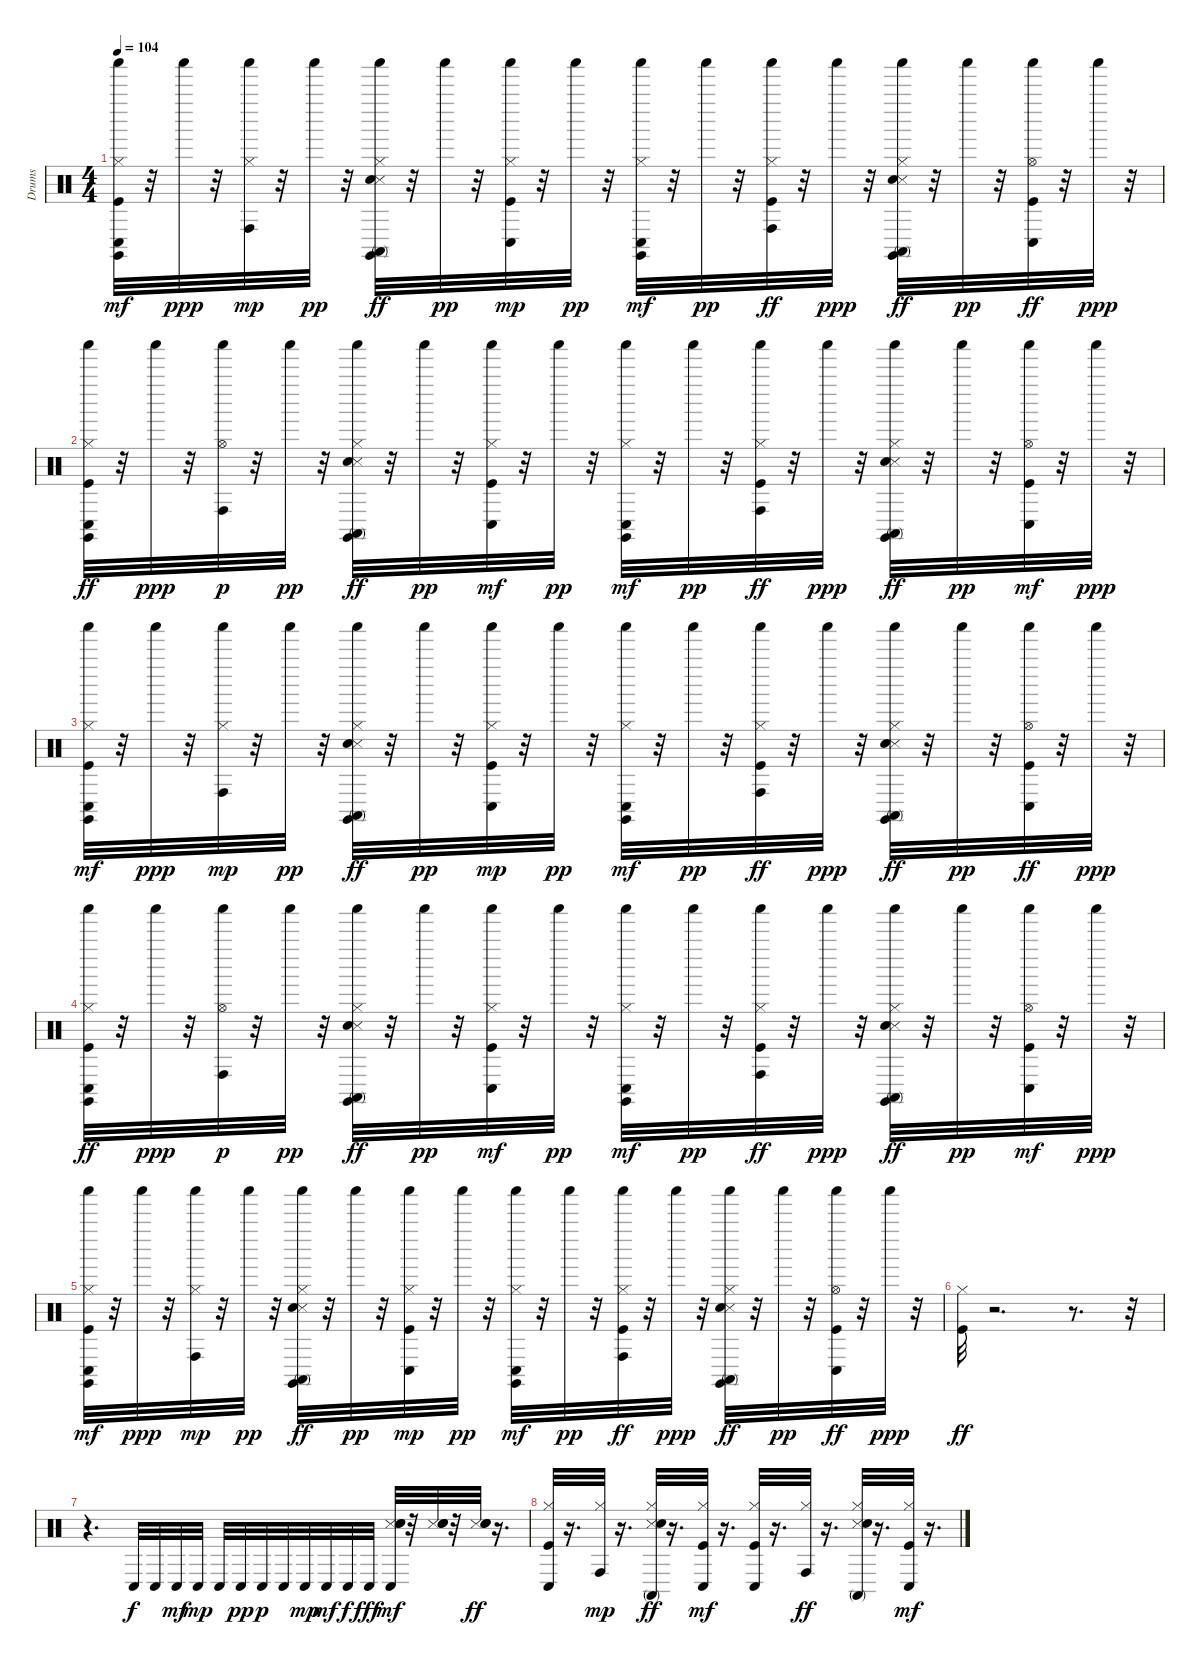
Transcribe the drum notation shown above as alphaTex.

\track ("Drums" "Drums") {instrument percussion}
\staff {score}
\articulation defaults
\ts (4 4)
\tempo 104
\clef neutral
\ks c
("Claves (hit)" "Shaker (hit)" "Kick (hit)" "Hi-Hat (closed)" "Conga low (hit)").32{dy mf} r.32 "Shaker (hit)".32{dy ppp} r.32 ("Shaker (hit)" "Hi-Hat (closed)" "Conga high (hit)").32{dy mp} r.32 "Shaker (hit)".32{dy pp} r.32 ("Claves (hit)" "Shaker (hit)" "Snare (side stick) 3" "Hi-Hat (closed)" "Conga high (mute)" "Snare (hit) 2").32{dy ff} r.32 "Shaker (hit)".32{dy pp} r.32 ("Shaker (hit)" "Kick (hit)" "Hi-Hat (closed)" "Conga low (hit)").32{dy mp} r.32 "Shaker (hit)".32{dy pp} r.32 ("Claves (hit)" "Shaker (hit)" "Hi-Hat (closed)" "Conga low (hit)").32{dy mf} r.32 "Shaker (hit)".32{dy pp} r.32 ("Shaker (hit)" "Kick (hit)" "Hi-Hat (closed)" "Conga high (hit)").32{dy ff} r.32 "Shaker (hit)".32{dy ppp} r.32 ("Claves (hit)" "Shaker (hit)" "Snare (side stick) 3" "Hi-Hat (closed)" "Conga high (mute)" "Snare (hit) 2").32{dy ff} r.32 "Shaker (hit)".32{dy pp} r.32 ("Hi-Hat (open)" "Shaker (hit)" "Kick (hit)" "Conga low (hit)").32{dy ff} r.32 "Shaker (hit)".32{dy ppp} r.32 |
("Claves (hit)" "Shaker (hit)" "Kick (hit)" "Hi-Hat (closed)" "Conga low (hit)").32{dy ff} r.32 "Shaker (hit)".32{dy ppp} r.32 ("Hi-Hat (open)" "Shaker (hit)" "Conga high (hit)").32{dy p} r.32 "Shaker (hit)".32{dy pp} r.32 ("Claves (hit)" "Shaker (hit)" "Snare (side stick) 3" "Hi-Hat (closed)" "Conga high (mute)" "Snare (hit) 2").32{dy ff} r.32 "Shaker (hit)".32{dy pp} r.32 ("Shaker (hit)" "Kick (hit)" "Hi-Hat (closed)" "Conga low (hit)").32{dy mf} r.32 "Shaker (hit)".32{dy pp} r.32 ("Claves (hit)" "Shaker (hit)" "Hi-Hat (closed)" "Conga low (hit)").32{dy mf} r.32 "Shaker (hit)".32{dy pp} r.32 ("Shaker (hit)" "Kick (hit)" "Hi-Hat (closed)" "Conga high (hit)").32{dy ff} r.32 "Shaker (hit)".32{dy ppp} r.32 ("Claves (hit)" "Shaker (hit)" "Snare (side stick) 3" "Hi-Hat (closed)" "Conga high (mute)" "Snare (hit) 2").32{dy ff} r.32 "Shaker (hit)".32{dy pp} r.32 ("Hi-Hat (open)" "Shaker (hit)" "Kick (hit)" "Conga low (hit)").32{dy mf} r.32 "Shaker (hit)".32{dy ppp} r.32 |
("Claves (hit)" "Shaker (hit)" "Kick (hit)" "Hi-Hat (closed)" "Conga low (hit)").32{dy mf} r.32 "Shaker (hit)".32{dy ppp} r.32 ("Shaker (hit)" "Hi-Hat (closed)" "Conga high (hit)").32{dy mp} r.32 "Shaker (hit)".32{dy pp} r.32 ("Claves (hit)" "Shaker (hit)" "Snare (side stick) 3" "Hi-Hat (closed)" "Conga high (mute)" "Snare (hit) 2").32{dy ff} r.32 "Shaker (hit)".32{dy pp} r.32 ("Shaker (hit)" "Kick (hit)" "Hi-Hat (closed)" "Conga low (hit)").32{dy mp} r.32 "Shaker (hit)".32{dy pp} r.32 ("Claves (hit)" "Shaker (hit)" "Hi-Hat (closed)" "Conga low (hit)").32{dy mf} r.32 "Shaker (hit)".32{dy pp} r.32 ("Shaker (hit)" "Kick (hit)" "Hi-Hat (closed)" "Conga high (hit)").32{dy ff} r.32 "Shaker (hit)".32{dy ppp} r.32 ("Claves (hit)" "Shaker (hit)" "Snare (side stick) 3" "Hi-Hat (closed)" "Conga high (mute)" "Snare (hit) 2").32{dy ff} r.32 "Shaker (hit)".32{dy pp} r.32 ("Hi-Hat (open)" "Shaker (hit)" "Kick (hit)" "Conga low (hit)").32{dy ff} r.32 "Shaker (hit)".32{dy ppp} r.32 |
("Claves (hit)" "Shaker (hit)" "Kick (hit)" "Hi-Hat (closed)" "Conga low (hit)").32{dy ff} r.32 "Shaker (hit)".32{dy ppp} r.32 ("Hi-Hat (open)" "Shaker (hit)" "Conga high (hit)").32{dy p} r.32 "Shaker (hit)".32{dy pp} r.32 ("Claves (hit)" "Shaker (hit)" "Snare (side stick) 3" "Hi-Hat (closed)" "Conga high (mute)" "Snare (hit) 2").32{dy ff} r.32 "Shaker (hit)".32{dy pp} r.32 ("Shaker (hit)" "Kick (hit)" "Hi-Hat (closed)" "Conga low (hit)").32{dy mf} r.32 "Shaker (hit)".32{dy pp} r.32 ("Claves (hit)" "Shaker (hit)" "Hi-Hat (closed)" "Conga low (hit)").32{dy mf} r.32 "Shaker (hit)".32{dy pp} r.32 ("Shaker (hit)" "Kick (hit)" "Hi-Hat (closed)" "Conga high (hit)").32{dy ff} r.32 "Shaker (hit)".32{dy ppp} r.32 ("Claves (hit)" "Shaker (hit)" "Snare (side stick) 3" "Hi-Hat (closed)" "Conga high (mute)" "Snare (hit) 2").32{dy ff} r.32 "Shaker (hit)".32{dy pp} r.32 ("Hi-Hat (open)" "Shaker (hit)" "Kick (hit)" "Conga low (hit)").32{dy mf} r.32 "Shaker (hit)".32{dy ppp} r.32 |
("Claves (hit)" "Shaker (hit)" "Kick (hit)" "Hi-Hat (closed)" "Conga low (hit)").32{dy mf} r.32 "Shaker (hit)".32{dy ppp} r.32 ("Shaker (hit)" "Hi-Hat (closed)" "Conga high (hit)").32{dy mp} r.32 "Shaker (hit)".32{dy pp} r.32 ("Claves (hit)" "Shaker (hit)" "Snare (side stick) 3" "Hi-Hat (closed)" "Conga high (mute)" "Snare (hit) 2").32{dy ff} r.32 "Shaker (hit)".32{dy pp} r.32 ("Shaker (hit)" "Kick (hit)" "Hi-Hat (closed)" "Conga low (hit)").32{dy mp} r.32 "Shaker (hit)".32{dy pp} r.32 ("Claves (hit)" "Shaker (hit)" "Hi-Hat (closed)" "Conga low (hit)").32{dy mf} r.32 "Shaker (hit)".32{dy pp} r.32 ("Shaker (hit)" "Kick (hit)" "Hi-Hat (closed)" "Conga high (hit)").32{dy ff} r.32 "Shaker (hit)".32{dy ppp} r.32 ("Claves (hit)" "Shaker (hit)" "Snare (side stick) 3" "Hi-Hat (closed)" "Conga high (mute)" "Snare (hit) 2").32{dy ff} r.32 "Shaker (hit)".32{dy pp} r.32 ("Hi-Hat (open)" "Shaker (hit)" "Kick (hit)" "Conga low (hit)").32{dy ff} r.32 "Shaker (hit)".32{dy ppp} r.32 |
("Kick (hit)" "Hi-Hat (closed)").32{dy ff} r.2{d} r.8{d} r.32 |
r.4{d} "Conga low (hit)".32{dy f} "Conga low (hit)".32 "Conga low (hit)".32{dy mf} "Conga low (hit)".32{dy mp} "Conga low (hit)".32 "Conga low (hit)".32{dy pp} "Conga low (hit)".32{dy p} "Conga low (hit)".32 "Conga low (hit)".32{dy mp} "Conga low (hit)".32{dy mf} "Conga low (hit)".32{dy f} "Conga low (hit)".32{dy fff} ("Snare (side stick) 3" "Conga low (hit)" "Snare (hit) 2" "Hand Clap (hit)").32{dy mf} r.32 ("Snare (side stick) 3" "Snare (hit) 2" "Hand Clap (hit)").32 r.32 ("Snare (side stick) 3" "Snare (hit) 2" "Hand Clap (hit)").32{dy ff} r.16{d} |
("Kick (hit)" "Hi-Hat (closed)" "Conga low (hit)").32 r.16{d} ("Hi-Hat (closed)" "Conga high (hit)").32{dy mp} r.16{d} ("Snare (side stick) 3" "Hi-Hat (closed)" "Conga high (mute)" "Snare (hit) 2").32{dy ff} r.16{d} ("Kick (hit)" "Hi-Hat (closed)" "Conga low (hit)").32{dy mf} r.16{d} ("Kick (hit)" "Hi-Hat (closed)" "Conga low (hit)").32 r.16{d} ("Hi-Hat (closed)" "Conga high (hit)").32{dy ff} r.16{d} ("Snare (side stick) 3" "Hi-Hat (closed)" "Conga high (mute)" "Snare (hit) 2").32 r.16{d} ("Kick (hit)" "Hi-Hat (closed)" "Conga low (hit)").32{dy mf} r.16{d}
